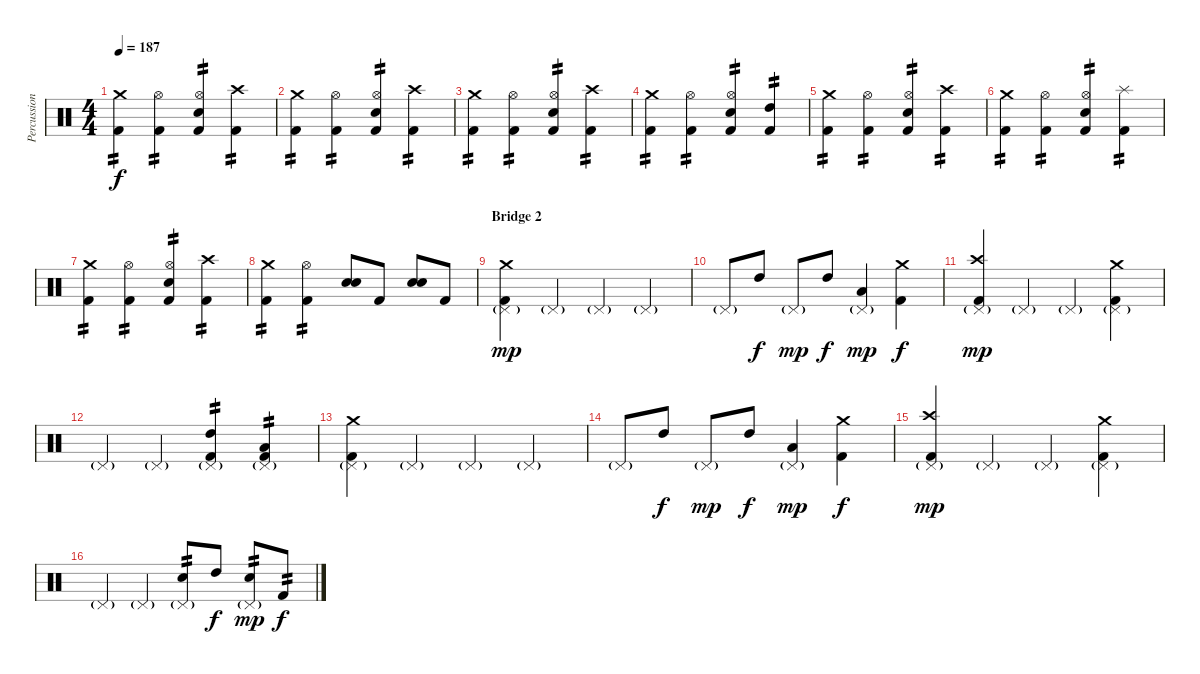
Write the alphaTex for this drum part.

\track ("Percussion" "Percussion") {instrument percussion}
\staff {score}
\articulation defaults
\ts (4 4)
\tempo 187
\clef neutral
\ks c
("Crash medium (hit)" "Kick (hit) 2").4{tp 2 dy f} ("Hi-Hat (open)" "Kick (hit) 2").4{tp 2} ("Hi-Hat (open)" "Electric Snare (hit)" "Kick (hit) 2").4{tp 2} ("Crash high (hit)" "Kick (hit) 2").4{tp 2} |
("Crash medium (hit)" "Kick (hit) 2").4{tp 2} ("Hi-Hat (open)" "Kick (hit) 2").4{tp 2} ("Hi-Hat (open)" "Electric Snare (hit)" "Kick (hit) 2").4{tp 2} ("Crash high (hit)" "Kick (hit) 2").4{tp 2} |
("Crash medium (hit)" "Kick (hit) 2").4{tp 2} ("Hi-Hat (open)" "Kick (hit) 2").4{tp 2} ("Hi-Hat (open)" "Electric Snare (hit)" "Kick (hit) 2").4{tp 2} ("Crash high (hit)" "Kick (hit) 2").4{tp 2} |
("Crash medium (hit)" "Kick (hit) 2").4{tp 2} ("Hi-Hat (open)" "Kick (hit) 2").4{tp 2} ("Hi-Hat (open)" "Electric Snare (hit)" "Kick (hit) 2").4{tp 2} ("High Tom (hit)" "Kick (hit) 2").4{tp 2} |
("Crash medium (hit)" "Kick (hit) 2").4{tp 2} ("Hi-Hat (open)" "Kick (hit) 2").4{tp 2} ("Hi-Hat (open)" "Electric Snare (hit)" "Kick (hit) 2").4{tp 2} ("Crash high (hit)" "Kick (hit) 2").4{tp 2} |
("Crash medium (hit)" "Kick (hit) 2").4{tp 2} ("Hi-Hat (open)" "Kick (hit) 2").4{tp 2} ("Hi-Hat (open)" "Electric Snare (hit)" "Kick (hit) 2").4{tp 2} ("Splash (hit)" "Kick (hit) 2").4{tp 2} |
("Crash medium (hit)" "Kick (hit) 2").4{tp 2} ("Hi-Hat (open)" "Kick (hit) 2").4{tp 2} ("Hi-Hat (open)" "Electric Snare (hit)" "Kick (hit) 2").4{tp 2} ("Crash high (hit)" "Kick (hit) 2").4{tp 2} |
("Crash medium (hit)" "Kick (hit) 2").4{tp 2} ("Hi-Hat (open)" "Kick (hit) 2").4{tp 2} ("Electric Snare (hit)" "Electric Snare (hit)").8{bd 480} "Kick (hit) 2".8 ("Electric Snare (hit)" "Electric Snare (hit)").8{bd 480} "Kick (hit) 2".8 |
\section ("" "Bridge 2")
("Crash medium (hit)" "Pedal Hi-Hat (hit)"{g} "Kick (hit) 2").4{dy mp} "Pedal Hi-Hat (hit)"{g}.4 "Pedal Hi-Hat (hit)"{g}.4 "Pedal Hi-Hat (hit)"{g}.4 |
"Pedal Hi-Hat (hit)"{g}.8 "High Tom (hit)".8{dy f} "Pedal Hi-Hat (hit)"{g}.8{dy mp} "High Tom (hit)".8{dy f} ("Pedal Hi-Hat (hit)"{g} "Low Tom (hit)").4{dy mp} ("Crash medium (hit)" "Kick (hit) 2").4{dy f} |
("Crash high (hit)" "Pedal Hi-Hat (hit)"{g} "Kick (hit) 2").4{dy mp} "Pedal Hi-Hat (hit)"{g}.4 "Pedal Hi-Hat (hit)"{g}.4 ("Crash medium (hit)" "Pedal Hi-Hat (hit)"{g} "Kick (hit) 2").4 |
"Pedal Hi-Hat (hit)"{g}.4 "Pedal Hi-Hat (hit)"{g}.4 ("Pedal Hi-Hat (hit)"{g} "High Tom (hit)" "Kick (hit) 2").4{tp 2} ("Pedal Hi-Hat (hit)"{g} "Low Tom (hit)" "Kick (hit) 2").4{tp 2} |
("Crash medium (hit)" "Pedal Hi-Hat (hit)"{g} "Kick (hit) 2").4 "Pedal Hi-Hat (hit)"{g}.4 "Pedal Hi-Hat (hit)"{g}.4 "Pedal Hi-Hat (hit)"{g}.4 |
"Pedal Hi-Hat (hit)"{g}.8 "High Tom (hit)".8{dy f} "Pedal Hi-Hat (hit)"{g}.8{dy mp} "High Tom (hit)".8{dy f} ("Pedal Hi-Hat (hit)"{g} "Low Tom (hit)").4{dy mp} ("Crash medium (hit)" "Kick (hit) 2").4{dy f} |
("Crash high (hit)" "Pedal Hi-Hat (hit)"{g} "Kick (hit) 2").4{dy mp} "Pedal Hi-Hat (hit)"{g}.4 "Pedal Hi-Hat (hit)"{g}.4 ("Crash medium (hit)" "Pedal Hi-Hat (hit)"{g} "Kick (hit) 2").4 |
"Pedal Hi-Hat (hit)"{g}.4 "Pedal Hi-Hat (hit)"{g}.4 ("Pedal Hi-Hat (hit)"{g} "Electric Snare (hit)").8{tp 2} "High Tom (hit)".8{dy f} ("Pedal Hi-Hat (hit)"{g} "Electric Snare (hit)").8{tp 2 dy mp} "Kick (hit) 2".8{tp 2 dy f}
